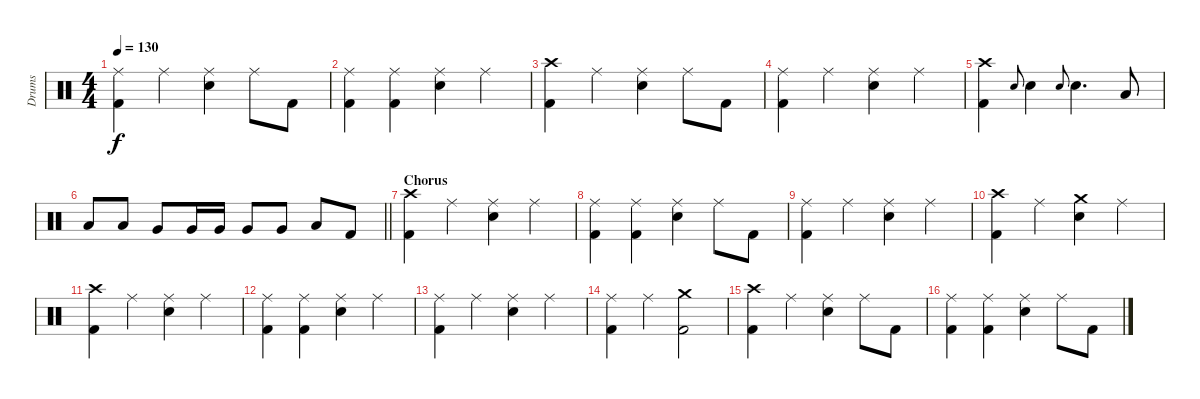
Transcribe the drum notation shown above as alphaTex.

\track ("Drums" "Drums") {instrument percussion}
\staff {score}
\articulation defaults
\ts (4 4)
\tempo 130
\clef neutral
\ks c
("Ride (middle)" "Kick (hit) 2").4{dy f} "Ride (middle)".4 ("Ride (middle)" "Electric Snare (hit)").4 "Ride (middle)".8 "Kick (hit) 2".8 |
("Ride (middle)" "Kick (hit) 2").4 ("Ride (middle)" "Kick (hit) 2").4 ("Ride (middle)" "Electric Snare (hit)").4 "Ride (middle)".4 |
("Crash high (hit)" "Kick (hit) 2").4 "Ride (middle)".4 ("Ride (middle)" "Electric Snare (hit)").4 "Ride (middle)".8 "Kick (hit) 2".8 |
("Ride (middle)" "Kick (hit) 2").4 "Ride (middle)".4 ("Ride (middle)" "Electric Snare (hit)").4 "Ride (middle)".4 |
("Crash high (hit)" "Kick (hit) 2").4 "Electric Snare (hit)".8{gr onbeat} "Electric Snare (hit)".4 "Electric Snare (hit)".8{gr onbeat} "Electric Snare (hit)".4{d} "Low Tom (hit)".8 |
\barLineRight lightlight "Low Tom (hit)".8 "Low Tom (hit)".8 "Very Low Tom (hit)".8 "Very Low Tom (hit)".16 "Very Low Tom (hit)".16 "Very Low Tom (hit)".8 "Very Low Tom (hit)".8 "Low Floor Tom (hit)".8 "Kick (hit) 2".8
|
\section ("" "Chorus")
("Crash high (hit)" "Kick (hit) 2").4 "Ride (middle)".4 ("Ride (middle)" "Electric Snare (hit)").4 "Ride (middle)".4 |
("Ride (middle)" "Kick (hit) 2").4 ("Ride (middle)" "Kick (hit) 2").4 ("Ride (middle)" "Electric Snare (hit)").4 "Ride (middle)".8 "Kick (hit) 2".8 |
("Ride (middle)" "Kick (hit) 2").4 "Ride (middle)".4 ("Ride (middle)" "Electric Snare (hit)").4 "Ride (middle)".4 |
("Crash high (hit)" "Kick (hit) 2").4 "Ride (middle)".4 ("Crash medium (hit)" "Electric Snare (hit)").4 "Ride (middle)".4 |
("Crash high (hit)" "Kick (hit) 2").4 "Ride (middle)".4 ("Ride (middle)" "Electric Snare (hit)").4 "Ride (middle)".4 |
("Ride (middle)" "Kick (hit) 2").4 ("Ride (middle)" "Kick (hit) 2").4 ("Ride (middle)" "Electric Snare (hit)").4 "Ride (middle)".4 |
("Ride (middle)" "Kick (hit) 2").4 "Ride (middle)".4 ("Ride (middle)" "Electric Snare (hit)").4 "Ride (middle)".4 |
("Ride (middle)" "Kick (hit) 2").4 "Ride (middle)".4 ("Crash medium (hit)" "Kick (hit) 2").2 |
("Crash high (hit)" "Kick (hit) 2").4 "Ride (middle)".4 ("Ride (middle)" "Electric Snare (hit)").4 "Ride (middle)".8 "Kick (hit) 2".8 |
("Ride (middle)" "Kick (hit) 2").4 ("Ride (middle)" "Kick (hit) 2").4 ("Ride (middle)" "Electric Snare (hit)").4 "Ride (middle)".8 "Kick (hit) 2".8
